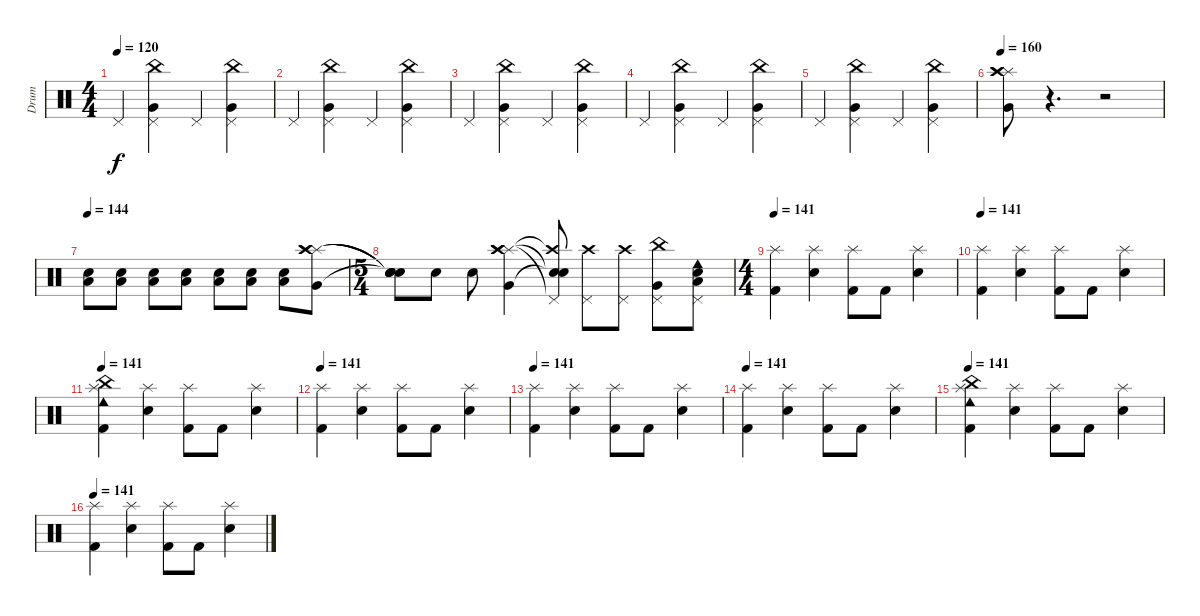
\track ("Drum" "Drum") {instrument percussion}
\staff {score}
\articulation defaults
\ts (4 4)
\tempo 120
\tempo 144
\tempo 120
\clef neutral
\ks c "Pedal Hi-Hat (hit)".4{dy f}
("Very Low Tom (hit)" "China (hit)" "Pedal Hi-Hat (hit)").4 "Pedal Hi-Hat (hit)".4 ("Very Low Tom (hit)" "China (hit)" "Pedal Hi-Hat (hit)").4 |
"Pedal Hi-Hat (hit)".4 ("Very Low Tom (hit)" "China (hit)" "Pedal Hi-Hat (hit)").4 "Pedal Hi-Hat (hit)".4 ("Very Low Tom (hit)" "China (hit)" "Pedal Hi-Hat (hit)").4 |
"Pedal Hi-Hat (hit)".4 ("Very Low Tom (hit)" "China (hit)" "Pedal Hi-Hat (hit)").4 "Pedal Hi-Hat (hit)".4 ("Very Low Tom (hit)" "China (hit)" "Pedal Hi-Hat (hit)").4 |
"Pedal Hi-Hat (hit)".4 ("Very Low Tom (hit)" "China (hit)" "Pedal Hi-Hat (hit)").4 "Pedal Hi-Hat (hit)".4 ("Very Low Tom (hit)" "China (hit)" "Pedal Hi-Hat (hit)").4 |
"Pedal Hi-Hat (hit)".4 ("Very Low Tom (hit)" "China (hit)" "Pedal Hi-Hat (hit)").4 "Pedal Hi-Hat (hit)".4 ("Very Low Tom (hit)" "China (hit)" "Pedal Hi-Hat (hit)").4 |
\tempo 160
("Splash (hit)" "Crash high (hit)" "Crash high (hit)" "Very Low Tom (hit)").8 r.4{d} r.2 |
\tempo 144
("Low Tom (hit)" "Snare (hit) 2").8 ("Low Tom (hit)" "Snare (hit) 2").8 ("Low Tom (hit)" "Snare (hit) 2").8 ("Low Tom (hit)" "Snare (hit) 2").8 ("Low Tom (hit)" "Snare (hit) 2").8 ("Low Tom (hit)" "Snare (hit) 2").8 ("Low Tom (hit)" "Snare (hit) 2").8 ("Splash (hit)" "Crash high (hit)" "Crash high (hit)" "Very Low Tom (hit)").8 |
\ts (5 4)
("Snare (hit)"{t} "Snare (hit)"{t} "Snare (hit) 2"{t} "Snare (hit)"{t}).8 "Snare (hit) 2".8 "Snare (hit) 2".8 ("Splash (hit)" "Crash high (hit)" "Crash high (hit)" "Very Low Tom (hit)").4 ("Snare (hit)"{t} "Crash high (hit)"{t} "Pedal Hi-Hat (hit)"{t} "Snare (hit)"{t}).8 ("Crash high (hit)" "Pedal Hi-Hat (hit)").8 ("Crash high (hit)" "Pedal Hi-Hat (hit)").8 ("Very Low Tom (hit)" "China (hit)" "Pedal Hi-Hat (hit)").8 ("Low Tom (hit)" "Snare (hit) 2" "Cowbell low (hit)" "Pedal Hi-Hat (hit)").8 |
\ts (4 4)
\tempo 141
("Splash (hit)" "Kick (hit) 2").4 ("Splash (hit)" "Snare (hit) 2").4 ("Splash (hit)" "Kick (hit) 2").8 "Kick (hit) 2".8 ("Splash (hit)" "Snare (hit) 2").4 |
\tempo 141
("Splash (hit)" "Kick (hit) 2").4 ("Splash (hit)" "Snare (hit) 2").4 ("Splash (hit)" "Kick (hit) 2").8 "Kick (hit) 2".8 ("Splash (hit)" "Snare (hit) 2").4 |
\tempo 141
("Cowbell low (hit)" "Splash (hit)" "China (hit)" "Kick (hit) 2").4 ("Splash (hit)" "Snare (hit) 2").4 ("Splash (hit)" "Kick (hit) 2").8 "Kick (hit) 2".8 ("Splash (hit)" "Snare (hit) 2").4 |
\tempo 141
("Splash (hit)" "Kick (hit) 2").4 ("Splash (hit)" "Snare (hit) 2").4 ("Splash (hit)" "Kick (hit) 2").8 "Kick (hit) 2".8 ("Splash (hit)" "Snare (hit) 2").4 |
\tempo 141
("Splash (hit)" "Kick (hit) 2").4 ("Splash (hit)" "Snare (hit) 2").4 ("Splash (hit)" "Kick (hit) 2").8 "Kick (hit) 2".8 ("Splash (hit)" "Snare (hit) 2").4 |
\tempo 141
("Splash (hit)" "Kick (hit) 2").4 ("Splash (hit)" "Snare (hit) 2").4 ("Splash (hit)" "Kick (hit) 2").8 "Kick (hit) 2".8 ("Splash (hit)" "Snare (hit) 2").4 |
\tempo 141
("Cowbell low (hit)" "Splash (hit)" "China (hit)" "Kick (hit) 2").4 ("Splash (hit)" "Snare (hit) 2").4 ("Splash (hit)" "Kick (hit) 2").8 "Kick (hit) 2".8 ("Splash (hit)" "Snare (hit) 2").4 |
\tempo 141
("Splash (hit)" "Kick (hit) 2").4 ("Splash (hit)" "Snare (hit) 2").4 ("Splash (hit)" "Kick (hit) 2").8 "Kick (hit) 2".8 ("Splash (hit)" "Snare (hit) 2").4
